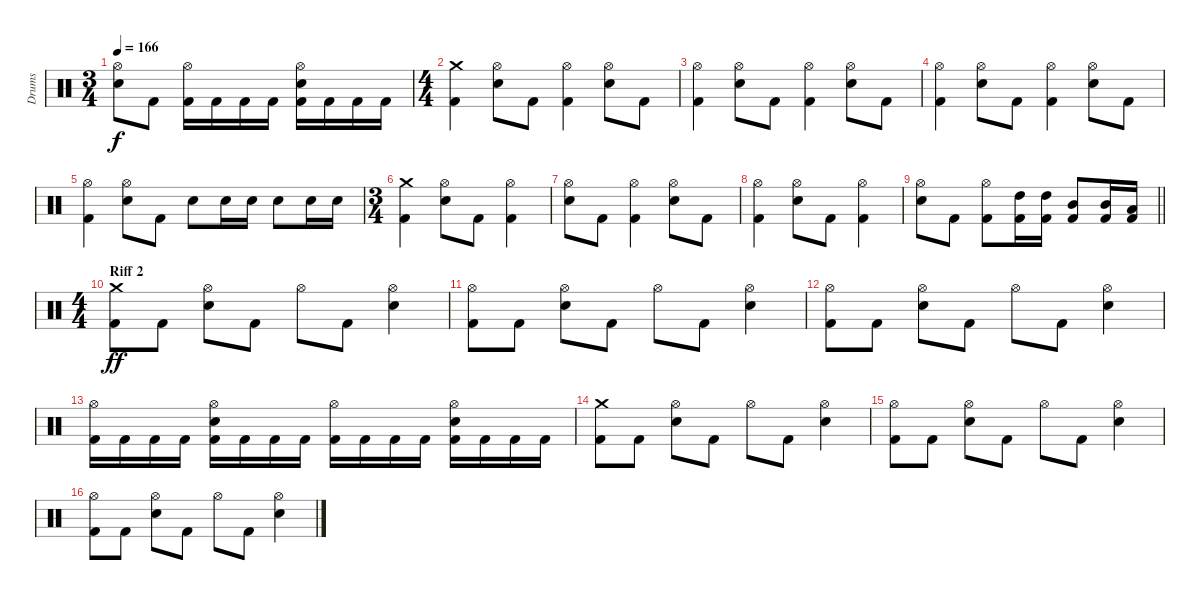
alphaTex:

\track ("Drums" "Drums") {instrument percussion}
\staff {score}
\articulation defaults
\ts (3 4)
\tempo 166
\clef neutral
\ks c
("Hi-Hat (open)" "Snare (hit) 2").8{dy f} "Kick (hit) 2".8 ("Hi-Hat (open)" "Kick (hit) 2").16 "Kick (hit) 2".16 "Kick (hit) 2".16 "Kick (hit) 2".16 ("Hi-Hat (open)" "Snare (hit) 2" "Kick (hit) 2").16 "Kick (hit) 2".16 "Kick (hit) 2".16 "Kick (hit) 2".16 |
\ts (4 4)
("Crash medium (hit)" "Kick (hit) 2").4 ("Hi-Hat (open)" "Snare (hit) 2").8 "Kick (hit) 2".8 ("Hi-Hat (open)" "Kick (hit) 2").4 ("Hi-Hat (open)" "Snare (hit) 2").8 "Kick (hit) 2".8 |
("Hi-Hat (open)" "Kick (hit) 2").4 ("Hi-Hat (open)" "Snare (hit) 2").8 "Kick (hit) 2".8 ("Hi-Hat (open)" "Kick (hit) 2").4 ("Hi-Hat (open)" "Snare (hit) 2").8 "Kick (hit) 2".8 |
("Hi-Hat (open)" "Kick (hit) 2").4 ("Hi-Hat (open)" "Snare (hit) 2").8 "Kick (hit) 2".8 ("Hi-Hat (open)" "Kick (hit) 2").4 ("Hi-Hat (open)" "Snare (hit) 2").8 "Kick (hit) 2".8 |
("Hi-Hat (open)" "Kick (hit) 2").4 ("Hi-Hat (open)" "Snare (hit) 2").8 "Kick (hit) 2".8 "Snare (hit) 2".8 "Snare (hit) 2".16 "Snare (hit) 2".16 "Snare (hit) 2".8 "Snare (hit) 2".16 "Snare (hit) 2".16 |
\ts (3 4)
("Crash medium (hit)" "Kick (hit) 2").4 ("Hi-Hat (open)" "Snare (hit) 2").8 "Kick (hit) 2".8 ("Hi-Hat (open)" "Kick (hit) 2").4 |
("Hi-Hat (open)" "Snare (hit) 2").8 "Kick (hit) 2".8 ("Hi-Hat (open)" "Kick (hit) 2").4 ("Hi-Hat (open)" "Snare (hit) 2").8 "Kick (hit) 2".8 |
("Hi-Hat (open)" "Kick (hit) 2").4 ("Hi-Hat (open)" "Snare (hit) 2").8 "Kick (hit) 2".8 ("Hi-Hat (open)" "Kick (hit) 2").4 |
\barLineRight lightlight
("Hi-Hat (open)" "Snare (hit) 2").8 "Kick (hit) 2".8 ("Hi-Hat (open)" "Kick (hit) 2").8 ("High Tom (hit)" "Kick (hit) 2").16 ("High Tom (hit)" "Kick (hit) 2").16 ("Mid Tom (hit)" "Kick (hit) 2").8 ("Mid Tom (hit)" "Kick (hit) 2").16 ("Low Tom (hit)" "Kick (hit) 2").16 |
\ts (4 4)
\section ("" "Riff 2")
("Crash medium (hit)" "Kick (hit) 2").8{dy ff} "Kick (hit) 2".8 ("Hi-Hat (open)" "Snare (hit) 2").8 "Kick (hit) 2".8 "Hi-Hat (open)".8 "Kick (hit) 2".8 ("Hi-Hat (open)" "Snare (hit) 2").4 |
("Hi-Hat (open)" "Kick (hit) 2").8 "Kick (hit) 2".8 ("Hi-Hat (open)" "Snare (hit) 2").8 "Kick (hit) 2".8 "Hi-Hat (open)".8 "Kick (hit) 2".8 ("Hi-Hat (open)" "Snare (hit) 2").4 |
("Hi-Hat (open)" "Kick (hit) 2").8 "Kick (hit) 2".8 ("Hi-Hat (open)" "Snare (hit) 2").8 "Kick (hit) 2".8 "Hi-Hat (open)".8 "Kick (hit) 2".8 ("Hi-Hat (open)" "Snare (hit) 2").4 |
("Hi-Hat (open)" "Kick (hit) 2").16 "Kick (hit) 2".16 "Kick (hit) 2".16 "Kick (hit) 2".16 ("Hi-Hat (open)" "Snare (hit) 2" "Kick (hit) 2").16 "Kick (hit) 2".16 "Kick (hit) 2".16 "Kick (hit) 2".16 ("Hi-Hat (open)" "Kick (hit) 2").16 "Kick (hit) 2".16 "Kick (hit) 2".16 "Kick (hit) 2".16 ("Hi-Hat (open)" "Snare (hit) 2" "Kick (hit) 2").16 "Kick (hit) 2".16 "Kick (hit) 2".16 "Kick (hit) 2".16 |
("Crash medium (hit)" "Kick (hit) 2").8 "Kick (hit) 2".8 ("Hi-Hat (open)" "Snare (hit) 2").8 "Kick (hit) 2".8 "Hi-Hat (open)".8 "Kick (hit) 2".8 ("Hi-Hat (open)" "Snare (hit) 2").4 |
("Hi-Hat (open)" "Kick (hit) 2").8 "Kick (hit) 2".8 ("Hi-Hat (open)" "Snare (hit) 2").8 "Kick (hit) 2".8 "Hi-Hat (open)".8 "Kick (hit) 2".8 ("Hi-Hat (open)" "Snare (hit) 2").4 |
("Hi-Hat (open)" "Kick (hit) 2").8 "Kick (hit) 2".8 ("Hi-Hat (open)" "Snare (hit) 2").8 "Kick (hit) 2".8 "Hi-Hat (open)".8 "Kick (hit) 2".8 ("Hi-Hat (open)" "Snare (hit) 2").4
